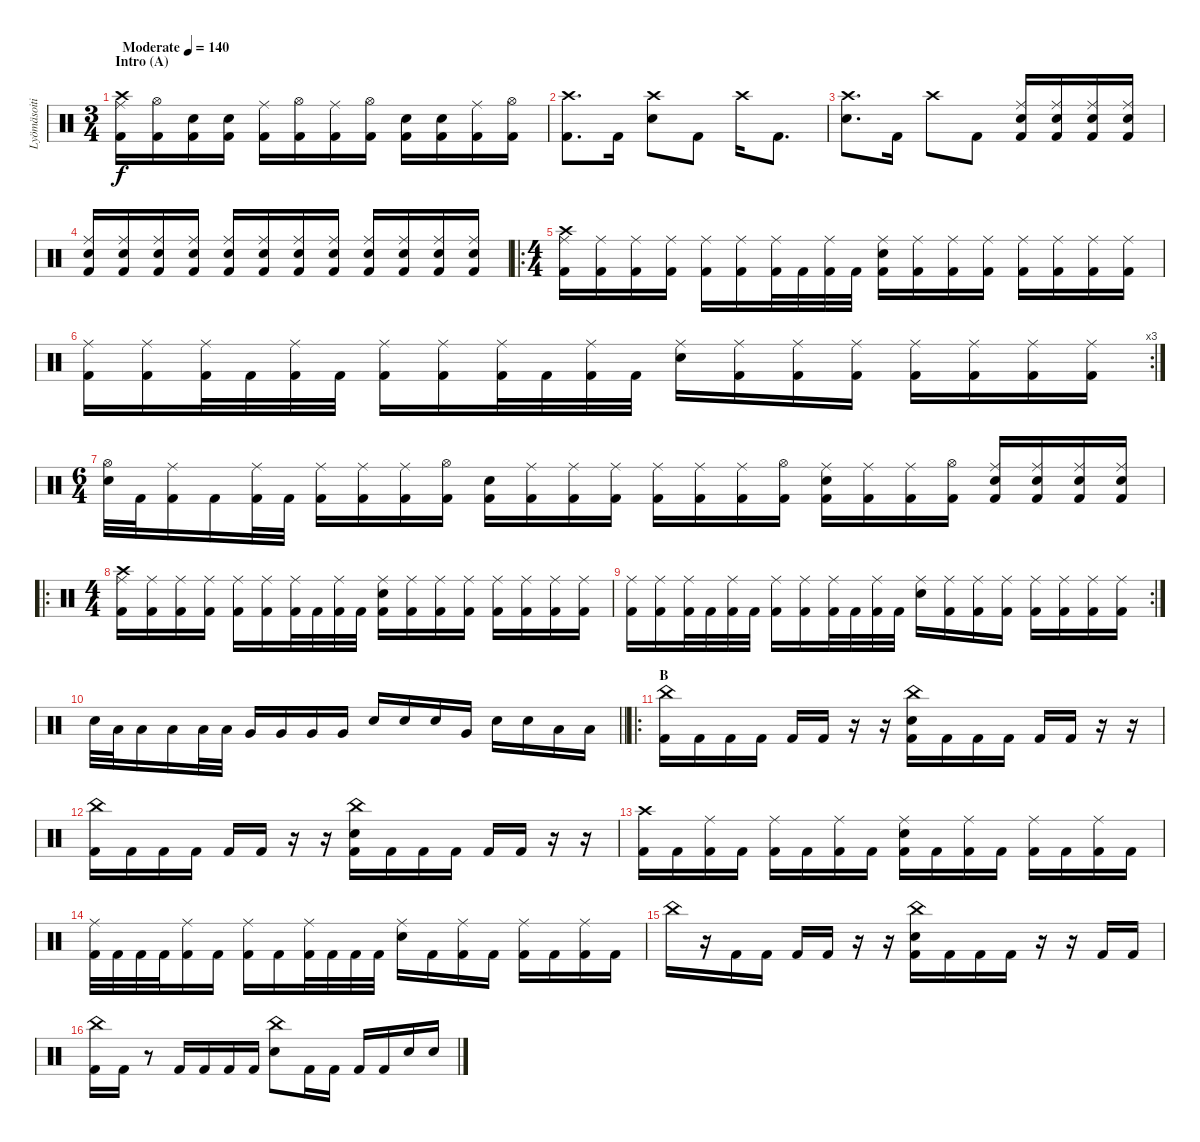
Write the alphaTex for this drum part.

\track ("Lyömäsoitin" "Lyömäsoiti") {instrument percussion}
\staff {score}
\articulation defaults
\ts (3 4)
\section ("" "Intro (A)")
\tempo (140 "Moderate")
\clef neutral
\ks c
("Kick (hit) 2" "Crash high (hit)" "Ride (middle)").16{dy f} ("Kick (hit) 2" "Hi-Hat (open)").16 ("Kick (hit) 2" "Snare (hit) 2").16 ("Kick (hit) 2" "Snare (hit) 2").16 ("Kick (hit) 2" "Ride (middle)").16 ("Kick (hit) 2" "Hi-Hat (open)").16 ("Kick (hit) 2" "Ride (middle)").16 ("Kick (hit) 2" "Hi-Hat (open)").16 ("Kick (hit) 2" "Snare (hit) 2").16 ("Kick (hit) 2" "Snare (hit) 2").16 ("Kick (hit) 2" "Ride (middle)").16 ("Kick (hit) 2" "Hi-Hat (open)").16 |
("Kick (hit) 2" "Crash high (hit)").8{d} "Kick (hit) 2".16 ("Snare (hit) 2" "Crash high (hit)").8 "Kick (hit) 2".8 "Crash high (hit)".16 "Kick (hit) 2".8{d} |
("Snare (hit) 2" "Crash high (hit)").8{d} "Kick (hit) 2".16 "Crash high (hit)".8 "Kick (hit) 2".8 ("Electric Snare (hit)" "Ride (middle)" "Kick (hit) 2").16 ("Electric Snare (hit)" "Ride (middle)" "Kick (hit) 2").16 ("Electric Snare (hit)" "Ride (middle)" "Kick (hit) 2").16 ("Electric Snare (hit)" "Ride (middle)" "Kick (hit) 2").16 |
("Electric Snare (hit)" "Ride (middle)" "Kick (hit) 2").16 ("Electric Snare (hit)" "Ride (middle)" "Kick (hit) 2").16 ("Electric Snare (hit)" "Ride (middle)" "Kick (hit) 2").16 ("Electric Snare (hit)" "Ride (middle)" "Kick (hit) 2").16 ("Electric Snare (hit)" "Ride (middle)" "Kick (hit) 2").16 ("Electric Snare (hit)" "Ride (middle)" "Kick (hit) 2").16 ("Electric Snare (hit)" "Ride (middle)" "Kick (hit) 2").16 ("Electric Snare (hit)" "Ride (middle)" "Kick (hit) 2").16 ("Electric Snare (hit)" "Ride (middle)" "Kick (hit) 2").16 ("Electric Snare (hit)" "Ride (middle)" "Kick (hit) 2").16 ("Electric Snare (hit)" "Ride (middle)" "Kick (hit) 2").16 ("Electric Snare (hit)" "Ride (middle)" "Kick (hit) 2").16 |
\ro
\ts (4 4)
("Kick (hit) 2" "Ride (middle)" "Crash high (hit)").16 ("Kick (hit) 2" "Ride (middle)").16 ("Kick (hit) 2" "Ride (middle)").16 ("Kick (hit) 2" "Ride (middle)").16 ("Kick (hit) 2" "Ride (middle)").16 ("Kick (hit) 2" "Ride (middle)").16 ("Kick (hit) 2" "Ride (middle)").32 "Kick (hit) 2".32 ("Kick (hit) 2" "Ride (middle)").32 "Kick (hit) 2".32 ("Kick (hit) 2" "Ride (middle)" "Snare (hit) 2").16 ("Kick (hit) 2" "Ride (middle)").16 ("Kick (hit) 2" "Ride (middle)").16 ("Kick (hit) 2" "Ride (middle)").16 ("Kick (hit) 2" "Ride (middle)").16 ("Kick (hit) 2" "Ride (middle)").16 ("Kick (hit) 2" "Ride (middle)").16 ("Kick (hit) 2" "Ride (middle)").16 |
\rc 3
("Kick (hit) 2" "Ride (middle)").16 ("Kick (hit) 2" "Ride (middle)").16 ("Kick (hit) 2" "Ride (middle)").32 "Kick (hit) 2".32 ("Kick (hit) 2" "Ride (middle)").32 "Kick (hit) 2".32 ("Kick (hit) 2" "Ride (middle)").16 ("Kick (hit) 2" "Ride (middle)").16 ("Kick (hit) 2" "Ride (middle)").32 "Kick (hit) 2".32 ("Kick (hit) 2" "Ride (middle)").32 "Kick (hit) 2".32 ("Snare (hit) 2" "Ride (middle)").16 ("Kick (hit) 2" "Ride (middle)").16 ("Kick (hit) 2" "Ride (middle)").16 ("Kick (hit) 2" "Ride (middle)").16 ("Kick (hit) 2" "Ride (middle)").16 ("Kick (hit) 2" "Ride (middle)").16 ("Kick (hit) 2" "Ride (middle)").16 ("Kick (hit) 2" "Ride (middle)").16 |
\ts (6 4)
("Snare (hit) 2" "Hi-Hat (open)").32 "Kick (hit) 2".32 ("Kick (hit) 2" "Ride (middle)").16 "Kick (hit) 2".16 ("Kick (hit) 2" "Ride (middle)").32 "Kick (hit) 2".32 ("Kick (hit) 2" "Ride (middle)").16 ("Kick (hit) 2" "Ride (middle)").16 ("Kick (hit) 2" "Ride (middle)").16 ("Kick (hit) 2" "Hi-Hat (open)").16 ("Electric Snare (hit)" "Kick (hit) 2").16 ("Ride (middle)" "Kick (hit) 2").16 ("Kick (hit) 2" "Ride (middle)").16 ("Kick (hit) 2" "Ride (middle)").16 ("Kick (hit) 2" "Ride (middle)").16 ("Kick (hit) 2" "Ride (middle)").16 ("Kick (hit) 2" "Ride (middle)").16 ("Kick (hit) 2" "Hi-Hat (open)").16 ("Kick (hit) 2" "Electric Snare (hit)" "Ride (middle)").16 ("Kick (hit) 2" "Ride (middle)").16 ("Kick (hit) 2" "Ride (middle)").16 ("Kick (hit) 2" "Hi-Hat (open)").16 ("Kick (hit) 2" "Ride (middle)" "Electric Snare (hit)").16 ("Kick (hit) 2" "Electric Snare (hit)" "Ride (middle)").16 ("Kick (hit) 2" "Electric Snare (hit)" "Ride (middle)").16 ("Kick (hit) 2" "Electric Snare (hit)" "Ride (middle)").16 |
\ro
\ts (4 4)
("Kick (hit) 2" "Ride (middle)" "Crash high (hit)").16 ("Kick (hit) 2" "Ride (middle)").16 ("Kick (hit) 2" "Ride (middle)").16 ("Kick (hit) 2" "Ride (middle)").16 ("Kick (hit) 2" "Ride (middle)").16 ("Kick (hit) 2" "Ride (middle)").16 ("Kick (hit) 2" "Ride (middle)").32 "Kick (hit) 2".32 ("Kick (hit) 2" "Ride (middle)").32 "Kick (hit) 2".32 ("Kick (hit) 2" "Ride (middle)" "Snare (hit) 2").16 ("Kick (hit) 2" "Ride (middle)").16 ("Kick (hit) 2" "Ride (middle)").16 ("Kick (hit) 2" "Ride (middle)").16 ("Kick (hit) 2" "Ride (middle)").16 ("Kick (hit) 2" "Ride (middle)").16 ("Kick (hit) 2" "Ride (middle)").16 ("Kick (hit) 2" "Ride (middle)").16 |
\rc 2
("Kick (hit) 2" "Ride (middle)").16 ("Kick (hit) 2" "Ride (middle)").16 ("Kick (hit) 2" "Ride (middle)").32 "Kick (hit) 2".32 ("Kick (hit) 2" "Ride (middle)").32 "Kick (hit) 2".32 ("Kick (hit) 2" "Ride (middle)").16 ("Kick (hit) 2" "Ride (middle)").16 ("Kick (hit) 2" "Ride (middle)").32 "Kick (hit) 2".32 ("Kick (hit) 2" "Ride (middle)").32 "Kick (hit) 2".32 ("Snare (hit) 2" "Ride (middle)").16 ("Kick (hit) 2" "Ride (middle)").16 ("Kick (hit) 2" "Ride (middle)").16 ("Kick (hit) 2" "Ride (middle)").16 ("Kick (hit) 2" "Ride (middle)").16 ("Kick (hit) 2" "Ride (middle)").16 ("Kick (hit) 2" "Ride (middle)").16 ("Kick (hit) 2" "Ride (middle)").16 |
\barLineRight lightlight "Snare (hit) 2".32 "Low Tom (hit)".32 "Low Tom (hit)".16 "Low Tom (hit)".16 "Low Tom (hit)".32 "Low Tom (hit)".32 "Very Low Tom (hit)".16 "Very Low Tom (hit)".16 "Very Low Tom (hit)".16 "Very Low Tom (hit)".16 "Snare (hit) 2".16 "Snare (hit) 2".16 "Snare (hit) 2".16 "Very Low Tom (hit)".16 "Snare (hit) 2".16 "Snare (hit) 2".16 "Low Floor Tom (hit)".16 "Low Floor Tom (hit)".16
|
\ro
\section ("" "B")
("Kick (hit) 2" "China (hit)").16 "Kick (hit) 2".16 "Kick (hit) 2".16 "Kick (hit) 2".16 "Kick (hit) 2".16 "Kick (hit) 2".16 r.16 r.16 ("Snare (hit) 2" "Kick (hit) 2" "China (hit)").16 "Kick (hit) 2".16 "Kick (hit) 2".16 "Kick (hit) 2".16 "Kick (hit) 2".16 "Kick (hit) 2".16 r.16 r.16 |
("Kick (hit) 2" "China (hit)").16 "Kick (hit) 2".16 "Kick (hit) 2".16 "Kick (hit) 2".16 "Kick (hit) 2".16 "Kick (hit) 2".16 r.16 r.16 ("Snare (hit) 2" "Kick (hit) 2" "China (hit)").16 "Kick (hit) 2".16 "Kick (hit) 2".16 "Kick (hit) 2".16 "Kick (hit) 2".16 "Kick (hit) 2".16 r.16 r.16 |
("Crash high (hit)" "Kick (hit) 2").16 "Kick (hit) 2".16 ("Kick (hit) 2" "Ride (middle)").16 "Kick (hit) 2".16 ("Kick (hit) 2" "Ride (middle)").16 "Kick (hit) 2".16 ("Kick (hit) 2" "Ride (middle)").16 "Kick (hit) 2".16 ("Kick (hit) 2" "Ride (middle)" "Electric Snare (hit)").16 "Kick (hit) 2".16 ("Kick (hit) 2" "Ride (middle)").16 "Kick (hit) 2".16 ("Kick (hit) 2" "Ride (middle)").16 "Kick (hit) 2".16 ("Kick (hit) 2" "Ride (middle)").16 "Kick (hit) 2".16 |
("Kick (hit) 2" "Ride (middle)").32 "Kick (hit) 2".32 "Kick (hit) 2".32 "Kick (hit) 2".32 ("Kick (hit) 2" "Ride (middle)").16 "Kick (hit) 2".16 ("Kick (hit) 2" "Ride (middle)").16 "Kick (hit) 2".16 ("Kick (hit) 2" "Ride (middle)").32 "Kick (hit) 2".32 "Kick (hit) 2".32 "Kick (hit) 2".32 ("Snare (hit) 2" "Ride (middle)").16 "Kick (hit) 2".16 ("Kick (hit) 2" "Ride (middle)").16 "Kick (hit) 2".16 ("Kick (hit) 2" "Ride (middle)").16 "Kick (hit) 2".16 ("Kick (hit) 2" "Ride (middle)").16 "Kick (hit) 2".16 |
"China (hit)".16 r.16 "Kick (hit) 2".16 "Kick (hit) 2".16 "Kick (hit) 2".16 "Kick (hit) 2".16 r.16 r.16 ("Snare (hit) 2" "Kick (hit) 2" "China (hit)").16 "Kick (hit) 2".16 "Kick (hit) 2".16 "Kick (hit) 2".16 r.16 r.16 "Kick (hit) 2".16 "Kick (hit) 2".16 |
("Kick (hit) 2" "China (hit)").16 "Kick (hit) 2".16 r.8 "Kick (hit) 2".16 "Kick (hit) 2".16 "Kick (hit) 2".16 "Kick (hit) 2".16 ("Snare (hit) 2" "China (hit)").8 "Kick (hit) 2".16 "Kick (hit) 2".16 "Kick (hit) 2".16 "Kick (hit) 2".16 "Snare (hit) 2".16 "Snare (hit) 2".16
